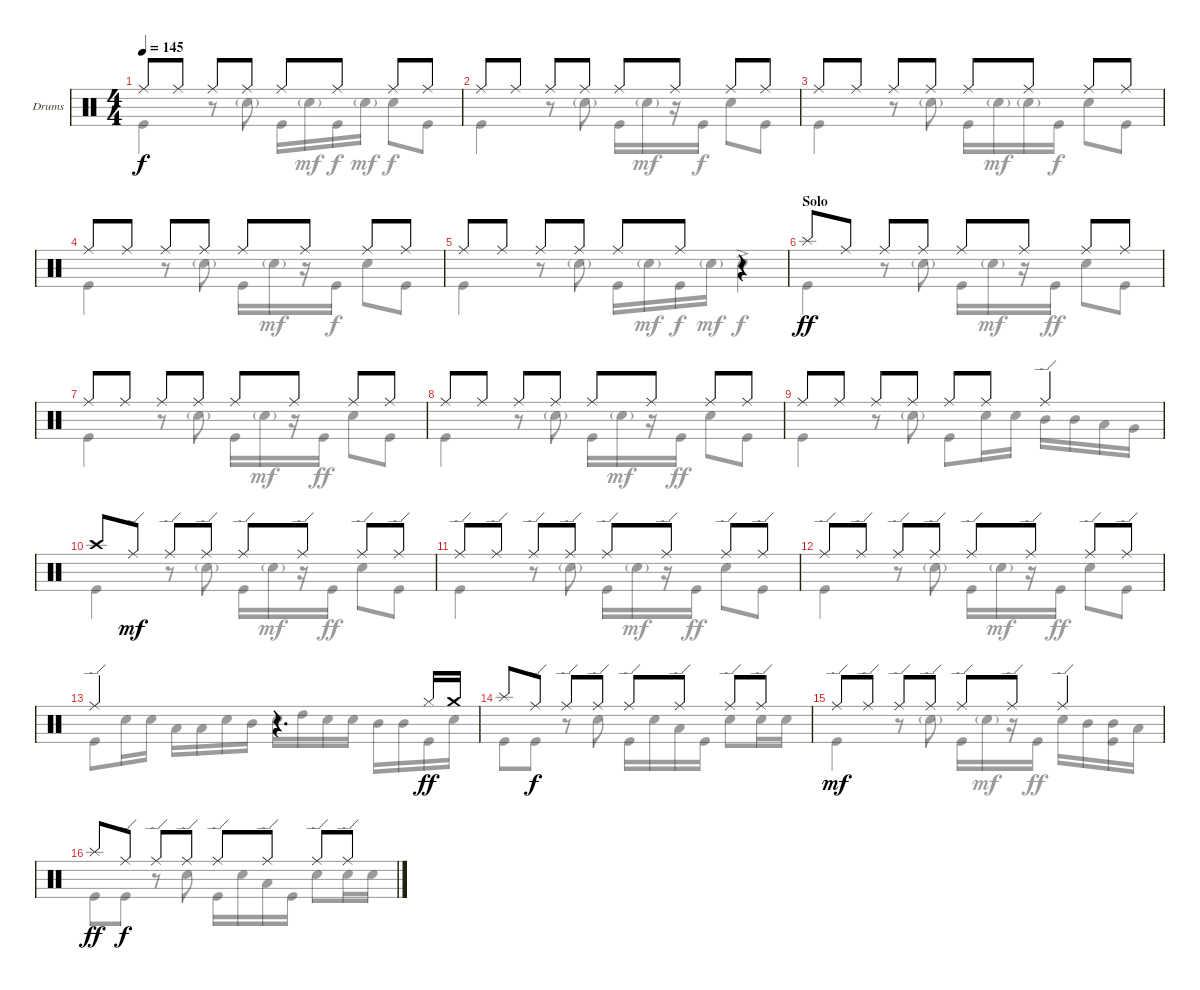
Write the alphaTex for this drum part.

\defaultSystemsLayout 4
\bracketExtendMode groupsimilarinstruments
\firstSystemTrackNameOrientation horizontal
\otherSystemsTrackNameOrientation horizontal
\track ("Drumkit" "Drums") {instrument percussion}
\staff {score}
\articulation defaults
\voice
\ts (4 4)
\tempo 145
\clef neutral
\ks c "Ride (middle)".8{dy f} "Ride (middle)".8 "Ride (middle)".8 "Ride (middle)".8 "Ride (middle)".8 "Ride (middle)".8 "Ride (middle)".8 "Ride (middle)".8
|
"Ride (middle)".8 "Ride (middle)".8 "Ride (middle)".8 "Ride (middle)".8 "Ride (middle)".8 "Ride (middle)".8 "Ride (middle)".8 "Ride (middle)".8 |
"Ride (middle)".8 "Ride (middle)".8 "Ride (middle)".8 "Ride (middle)".8 "Ride (middle)".8 "Ride (middle)".8 "Ride (middle)".8 "Ride (middle)".8 |
"Ride (middle)".8 "Ride (middle)".8 "Ride (middle)".8 "Ride (middle)".8 "Ride (middle)".8 "Ride (middle)".8 "Ride (middle)".8 "Ride (middle)".8 |
"Ride (middle)".8 "Ride (middle)".8 "Ride (middle)".8 "Ride (middle)".8 "Ride (middle)".8 "Ride (middle)".8 r.4 |
\section ("" "Solo")
"Splash (hit)".8{dy ff} "Ride (middle)".8 "Ride (middle)".8 "Ride (middle)".8 "Ride (middle)".8 "Ride (middle)".8 "Ride (middle)".8 "Ride (middle)".8 |
"Ride (middle)".8 "Ride (middle)".8 "Ride (middle)".8 "Ride (middle)".8 "Ride (middle)".8 "Ride (middle)".8 "Ride (middle)".8 "Ride (middle)".8 |
"Ride (middle)".8 "Ride (middle)".8 "Ride (middle)".8 "Ride (middle)".8 "Ride (middle)".8 "Ride (middle)".8 "Ride (middle)".8 "Ride (middle)".8 |
"Ride (middle)".8 "Ride (middle)".8 "Ride (middle)".8 "Ride (middle)".8 "Ride (middle)".8 "Ride (middle)".8 "Ride (edge)".4 |
"Crash high (hit)".8 "Ride (edge)".8{dy mf} "Ride (edge)".8 "Ride (edge)".8 "Ride (edge)".8 "Ride (edge)".8 "Ride (edge)".8 "Ride (edge)".8 |
"Ride (edge)".8 "Ride (edge)".8 "Ride (edge)".8 "Ride (edge)".8 "Ride (edge)".8 "Ride (edge)".8 "Ride (edge)".8 "Ride (edge)".8 |
"Ride (edge)".8 "Ride (edge)".8 "Ride (edge)".8 "Ride (edge)".8 "Ride (edge)".8 "Ride (edge)".8 "Ride (edge)".8 "Ride (edge)".8 |
"Ride (edge)".2 r.4{d} "Hi-Hat (closed)".16{dy ff} "Crash medium (hit)".16 |
"Splash (hit)".8 "Ride (edge)".8{dy f} "Ride (edge)".8 "Ride (edge)".8 "Ride (edge)".8 "Ride (edge)".8 "Ride (edge)".8 "Ride (edge)".8 |
"Ride (edge)".8{dy mf} "Ride (edge)".8 "Ride (edge)".8 "Ride (edge)".8 "Ride (edge)".8 "Ride (edge)".8 "Ride (edge)".4 |
"Splash (hit)".8{dy ff} "Ride (edge)".8{dy f} "Ride (edge)".8 "Ride (edge)".8 "Ride (edge)".8 "Ride (edge)".8 "Ride (edge)".8 "Ride (edge)".8
\voice
\clef neutral
\ottava regular
\simile none
\ks c "Kick (hit)".4{dy f}
r.8 "Snare (hit) 2"{g}.8 "Kick (hit)".16 "Snare (hit) 2"{g}.16{dy mf} "Kick (hit)".16{dy f} "Snare (hit) 2"{g}.16{dy mf} "Snare (hit) 2".8{dy f} "Kick (hit)".8 |
"Kick (hit)".4 r.8 "Snare (hit) 2"{g}.8 "Kick (hit)".16 "Snare (hit) 2"{g}.16{dy mf} r.16 "Kick (hit)".16{dy f} "Snare (hit) 2".8 "Kick (hit)".8 |
"Kick (hit)".4 r.8 "Snare (hit) 2"{g}.8 "Kick (hit)".16 "Snare (hit) 2"{g}.16{dy mf} "Snare (hit) 2"{g}.16 "Kick (hit)".16{dy f} "Snare (hit) 2".8 "Kick (hit)".8 |
"Kick (hit)".4 r.8 "Snare (hit) 2"{g}.8 "Kick (hit)".16 "Snare (hit) 2"{g}.16{dy mf} r.16 "Kick (hit)".16{dy f} "Snare (hit) 2".8 "Kick (hit)".8 |
"Kick (hit)".4 r.8 "Snare (hit) 2"{g}.8 "Kick (hit)".16 "Snare (hit) 2"{g}.16{dy mf} "Kick (hit)".16{dy f} "Snare (hit) 2"{g}.16{dy mf} "Snare (hit) 2"{ac}.4{dy f} |
"Kick (hit)".4{dy ff} r.8 "Snare (hit) 2"{g}.8 "Kick (hit)".16 "Snare (hit) 2"{g}.16{dy mf} r.16 "Kick (hit)".16{dy ff} "Snare (hit) 2".8 "Kick (hit)".8 |
"Kick (hit)".4 r.8 "Snare (hit) 2"{g}.8 "Kick (hit)".16 "Snare (hit) 2"{g}.16{dy mf} r.16 "Kick (hit)".16{dy ff} "Snare (hit) 2".8 "Kick (hit)".8 |
"Kick (hit)".4 r.8 "Snare (hit) 2"{g}.8 "Kick (hit)".16 "Snare (hit) 2"{g}.16{dy mf} r.16 "Kick (hit)".16{dy ff} "Snare (hit) 2".8 "Kick (hit)".8 |
"Kick (hit)".4 r.8 "Snare (hit) 2"{g}.8 "Kick (hit)".8 "Snare (hit) 2".16 "Snare (hit) 2".16 "Mid Tom (hit)".16 "Mid Tom (hit)".16 "Low Tom (hit)".16 "Very Low Tom (hit)".16 |
"Kick (hit)".4 r.8 "Snare (hit) 2"{g}.8 "Kick (hit)".16 "Snare (hit) 2"{g}.16{dy mf} r.16 "Kick (hit)".16{dy ff} "Snare (hit) 2".8 "Kick (hit)".8 |
"Kick (hit)".4 r.8 "Snare (hit) 2"{g}.8 "Kick (hit)".16 "Snare (hit) 2"{g}.16{dy mf} r.16 "Kick (hit)".16{dy ff} "Snare (hit) 2".8 "Kick (hit)".8 |
"Kick (hit)".4 r.8 "Snare (hit) 2"{g}.8 "Kick (hit)".16 "Snare (hit) 2"{g}.16{dy mf} r.16 "Kick (hit)".16{dy ff} "Snare (hit) 2".8 "Kick (hit)".8 |
"Kick (hit)".8 "Snare (hit) 2".16 "Snare (hit) 2".16 "Low Tom (hit)".16 "Low Tom (hit)".16 "Snare (hit) 2".16 "Mid Tom (hit)".16 "Snare (hit) 2".16 "High Tom (hit)".16 "Snare (hit) 2".16 "Snare (hit) 2".16 "Mid Tom (hit)".16 "Mid Tom (hit)".16 "Kick (hit)".16 "Snare (hit) 2".16 |
"Kick (hit)".8 "Kick (hit)".8 r.8 "Snare (hit) 2".8 "Kick (hit)".16 "Snare (hit) 2".16 "Low Tom (hit)".16 "Kick (hit)".16 "Snare (hit) 2".8 "Snare (hit) 2".16 "Snare (hit) 2".16 |
"Kick (hit)".4 r.8 "Snare (hit) 2"{g}.8 "Kick (hit)".16 "Snare (hit) 2"{g}.16{dy mf} r.16 "Kick (hit)".16{dy ff} "Snare (hit) 2".16 "Mid Tom (hit)".16 ("Mid Tom (hit)" "Kick (hit)").16 "Low Tom (hit)".16 |
"Kick (hit)".8 "Kick (hit)".8 r.8 "Snare (hit) 2".8 "Kick (hit)".16 "Snare (hit) 2".16 "Low Tom (hit)".16 "Kick (hit)".16 "Snare (hit) 2".8 "Snare (hit) 2".16 "Snare (hit) 2".16
